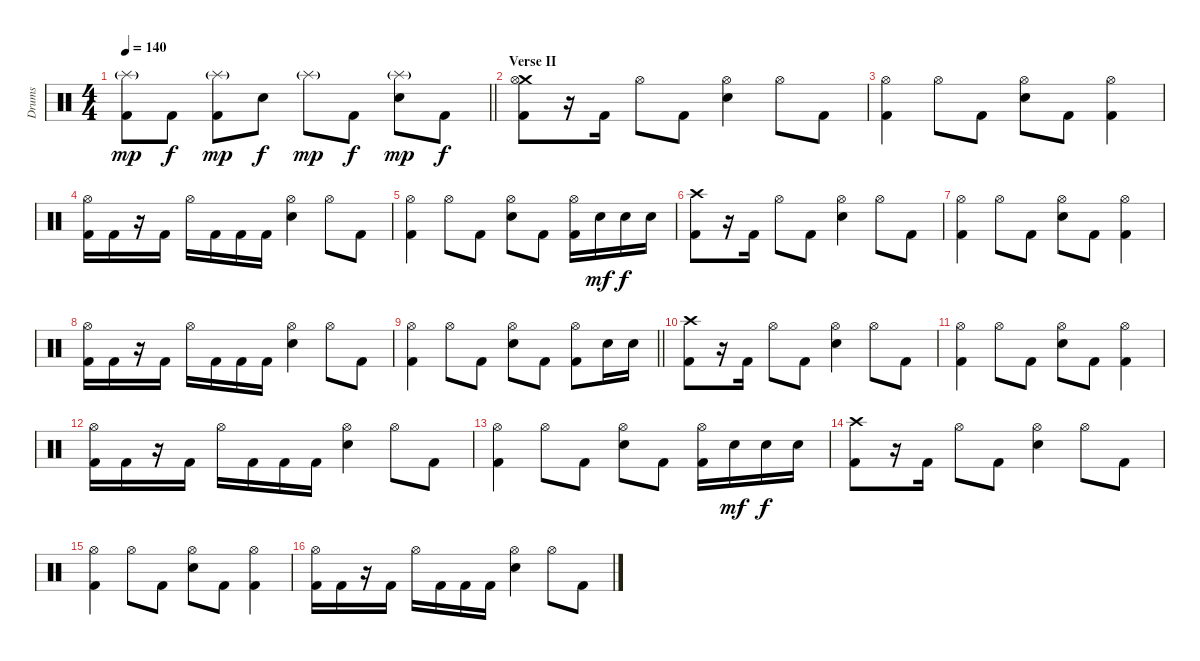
\track ("Drums" "Drums") {instrument percussion}
\staff {score}
\articulation defaults
\ts (4 4)
\tempo 140
\clef neutral
\barLineRight lightlight
\ks c
("Splash (hit)"{g} "Kick (hit) 2").8{dy mp} "Kick (hit) 2".8{dy f} ("Splash (hit)"{g} "Kick (hit) 2").8{dy mp} "Electric Snare (hit)".8{dy f} "Splash (hit)"{g}.8{dy mp} "Kick (hit) 2".8{dy f} ("Splash (hit)"{g} "Electric Snare (hit)").8{dy mp} "Kick (hit) 2".8{dy f} |
\section ("" "Verse II")
("Crash medium (hit)" "Hi-Hat (open)" "Kick (hit) 2").8 r.16 "Kick (hit) 2".16 "Hi-Hat (open)".8 "Kick (hit) 2".8 ("Hi-Hat (open)" "Electric Snare (hit)").4 "Hi-Hat (open)".8 "Kick (hit) 2".8 |
("Hi-Hat (open)" "Kick (hit) 2").4 "Hi-Hat (open)".8 "Kick (hit) 2".8 ("Hi-Hat (open)" "Electric Snare (hit)").8 "Kick (hit) 2".8 ("Hi-Hat (open)" "Kick (hit) 2").4 |
("Hi-Hat (open)" "Kick (hit) 2").16 "Kick (hit) 2".16 r.16 "Kick (hit) 2".16 "Hi-Hat (open)".16 "Kick (hit) 2".16 "Kick (hit) 2".16 "Kick (hit) 2".16 ("Hi-Hat (open)" "Electric Snare (hit)").4 "Hi-Hat (open)".8 "Kick (hit) 2".8 |
("Hi-Hat (open)" "Kick (hit) 2").4 "Hi-Hat (open)".8 "Kick (hit) 2".8 ("Hi-Hat (open)" "Electric Snare (hit)").8 "Kick (hit) 2".8 ("Hi-Hat (open)" "Kick (hit) 2").16 "Electric Snare (hit)".16{dy mf} "Electric Snare (hit)".16{dy f} "Electric Snare (hit)".16 |
("Crash high (hit)" "Kick (hit) 2").8 r.16 "Kick (hit) 2".16 "Hi-Hat (open)".8 "Kick (hit) 2".8 ("Hi-Hat (open)" "Electric Snare (hit)").4 "Hi-Hat (open)".8 "Kick (hit) 2".8 |
("Hi-Hat (open)" "Kick (hit) 2").4 "Hi-Hat (open)".8 "Kick (hit) 2".8 ("Hi-Hat (open)" "Electric Snare (hit)").8 "Kick (hit) 2".8 ("Hi-Hat (open)" "Kick (hit) 2").4 |
("Hi-Hat (open)" "Kick (hit) 2").16 "Kick (hit) 2".16 r.16 "Kick (hit) 2".16 "Hi-Hat (open)".16 "Kick (hit) 2".16 "Kick (hit) 2".16 "Kick (hit) 2".16 ("Hi-Hat (open)" "Electric Snare (hit)").4 "Hi-Hat (open)".8 "Kick (hit) 2".8 |
\barLineRight lightlight
("Hi-Hat (open)" "Kick (hit) 2").4 "Hi-Hat (open)".8 "Kick (hit) 2".8 ("Hi-Hat (open)" "Electric Snare (hit)").8 "Kick (hit) 2".8 ("Hi-Hat (open)" "Kick (hit) 2").8 "Electric Snare (hit)".16 "Electric Snare (hit)".16 |
\section ("" "")
("Crash high (hit)" "Kick (hit) 2").8 r.16 "Kick (hit) 2".16 "Hi-Hat (open)".8 "Kick (hit) 2".8 ("Hi-Hat (open)" "Electric Snare (hit)").4 "Hi-Hat (open)".8 "Kick (hit) 2".8 |
("Hi-Hat (open)" "Kick (hit) 2").4 "Hi-Hat (open)".8 "Kick (hit) 2".8 ("Hi-Hat (open)" "Electric Snare (hit)").8 "Kick (hit) 2".8 ("Hi-Hat (open)" "Kick (hit) 2").4 |
("Hi-Hat (open)" "Kick (hit) 2").16 "Kick (hit) 2".16 r.16 "Kick (hit) 2".16 "Hi-Hat (open)".16 "Kick (hit) 2".16 "Kick (hit) 2".16 "Kick (hit) 2".16 ("Hi-Hat (open)" "Electric Snare (hit)").4 "Hi-Hat (open)".8 "Kick (hit) 2".8 |
("Hi-Hat (open)" "Kick (hit) 2").4 "Hi-Hat (open)".8 "Kick (hit) 2".8 ("Hi-Hat (open)" "Electric Snare (hit)").8 "Kick (hit) 2".8 ("Hi-Hat (open)" "Kick (hit) 2").16 "Electric Snare (hit)".16{dy mf} "Electric Snare (hit)".16{dy f} "Electric Snare (hit)".16 |
("Crash high (hit)" "Kick (hit) 2").8 r.16 "Kick (hit) 2".16 "Hi-Hat (open)".8 "Kick (hit) 2".8 ("Hi-Hat (open)" "Electric Snare (hit)").4 "Hi-Hat (open)".8 "Kick (hit) 2".8 |
("Hi-Hat (open)" "Kick (hit) 2").4 "Hi-Hat (open)".8 "Kick (hit) 2".8 ("Hi-Hat (open)" "Electric Snare (hit)").8 "Kick (hit) 2".8 ("Hi-Hat (open)" "Kick (hit) 2").4 |
("Hi-Hat (open)" "Kick (hit) 2").16 "Kick (hit) 2".16 r.16 "Kick (hit) 2".16 "Hi-Hat (open)".16 "Kick (hit) 2".16 "Kick (hit) 2".16 "Kick (hit) 2".16 ("Hi-Hat (open)" "Electric Snare (hit)").4 "Hi-Hat (open)".8 "Kick (hit) 2".8
